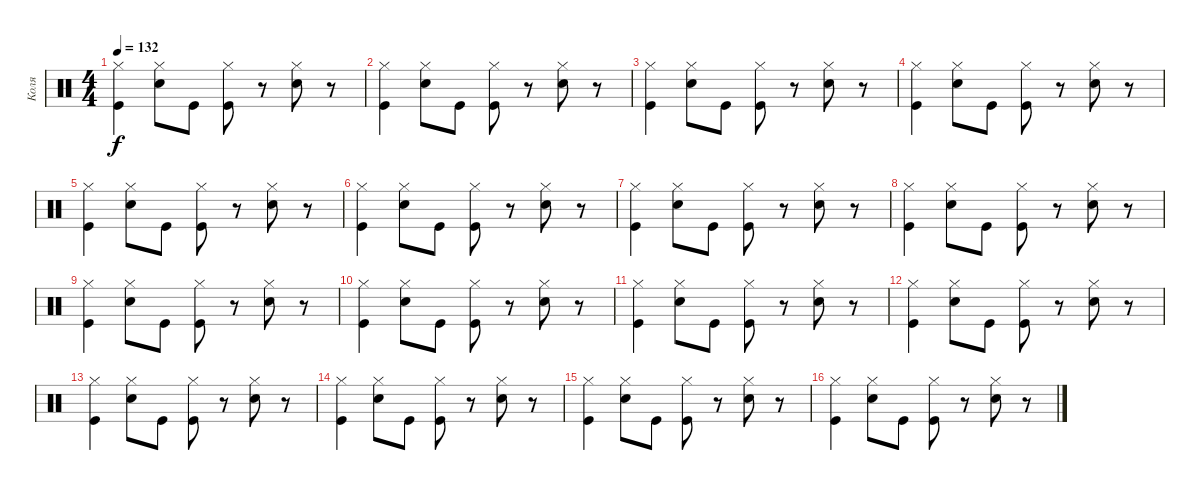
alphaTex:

\track ("Коля" "Коля") {instrument percussion}
\staff {score}
\articulation defaults
\ts (4 4)
\tempo 132
\clef neutral
\ks c
("Hi-Hat (closed)" "Kick (hit)").4{dy f} ("Hi-Hat (closed)" "Snare (hit) 2").8 "Kick (hit)".8 ("Hi-Hat (closed)" "Kick (hit)").8 r.8 ("Hi-Hat (closed)" "Snare (hit) 2").8 r.8 |
("Hi-Hat (closed)" "Kick (hit)").4 ("Hi-Hat (closed)" "Snare (hit) 2").8 "Kick (hit)".8 ("Hi-Hat (closed)" "Kick (hit)").8 r.8 ("Hi-Hat (closed)" "Snare (hit) 2").8 r.8 |
("Hi-Hat (closed)" "Kick (hit)").4 ("Hi-Hat (closed)" "Snare (hit) 2").8 "Kick (hit)".8 ("Hi-Hat (closed)" "Kick (hit)").8 r.8 ("Hi-Hat (closed)" "Snare (hit) 2").8 r.8 |
("Hi-Hat (closed)" "Kick (hit)").4 ("Hi-Hat (closed)" "Snare (hit) 2").8 "Kick (hit)".8 ("Hi-Hat (closed)" "Kick (hit)").8 r.8 ("Hi-Hat (closed)" "Snare (hit) 2").8 r.8 |
("Hi-Hat (closed)" "Kick (hit)").4 ("Hi-Hat (closed)" "Snare (hit) 2").8 "Kick (hit)".8 ("Hi-Hat (closed)" "Kick (hit)").8 r.8 ("Hi-Hat (closed)" "Snare (hit) 2").8 r.8 |
("Hi-Hat (closed)" "Kick (hit)").4 ("Hi-Hat (closed)" "Snare (hit) 2").8 "Kick (hit)".8 ("Hi-Hat (closed)" "Kick (hit)").8 r.8 ("Hi-Hat (closed)" "Snare (hit) 2").8 r.8 |
("Hi-Hat (closed)" "Kick (hit)").4 ("Hi-Hat (closed)" "Snare (hit) 2").8 "Kick (hit)".8 ("Hi-Hat (closed)" "Kick (hit)").8 r.8 ("Hi-Hat (closed)" "Snare (hit) 2").8 r.8 |
("Hi-Hat (closed)" "Kick (hit)").4 ("Hi-Hat (closed)" "Snare (hit) 2").8 "Kick (hit)".8 ("Hi-Hat (closed)" "Kick (hit)").8 r.8 ("Hi-Hat (closed)" "Snare (hit) 2").8 r.8 |
("Hi-Hat (closed)" "Kick (hit)").4 ("Hi-Hat (closed)" "Snare (hit) 2").8 "Kick (hit)".8 ("Hi-Hat (closed)" "Kick (hit)").8 r.8 ("Hi-Hat (closed)" "Snare (hit) 2").8 r.8 |
("Hi-Hat (closed)" "Kick (hit)").4 ("Hi-Hat (closed)" "Snare (hit) 2").8 "Kick (hit)".8 ("Hi-Hat (closed)" "Kick (hit)").8 r.8 ("Hi-Hat (closed)" "Snare (hit) 2").8 r.8 |
("Hi-Hat (closed)" "Kick (hit)").4 ("Hi-Hat (closed)" "Snare (hit) 2").8 "Kick (hit)".8 ("Hi-Hat (closed)" "Kick (hit)").8 r.8 ("Hi-Hat (closed)" "Snare (hit) 2").8 r.8 |
("Hi-Hat (closed)" "Kick (hit)").4 ("Hi-Hat (closed)" "Snare (hit) 2").8 "Kick (hit)".8 ("Hi-Hat (closed)" "Kick (hit)").8 r.8 ("Hi-Hat (closed)" "Snare (hit) 2").8 r.8 |
("Hi-Hat (closed)" "Kick (hit)").4 ("Hi-Hat (closed)" "Snare (hit) 2").8 "Kick (hit)".8 ("Hi-Hat (closed)" "Kick (hit)").8 r.8 ("Hi-Hat (closed)" "Snare (hit) 2").8 r.8 |
("Hi-Hat (closed)" "Kick (hit)").4 ("Hi-Hat (closed)" "Snare (hit) 2").8 "Kick (hit)".8 ("Hi-Hat (closed)" "Kick (hit)").8 r.8 ("Hi-Hat (closed)" "Snare (hit) 2").8 r.8 |
("Hi-Hat (closed)" "Kick (hit)").4 ("Hi-Hat (closed)" "Snare (hit) 2").8 "Kick (hit)".8 ("Hi-Hat (closed)" "Kick (hit)").8 r.8 ("Hi-Hat (closed)" "Snare (hit) 2").8 r.8 |
("Hi-Hat (closed)" "Kick (hit)").4 ("Hi-Hat (closed)" "Snare (hit) 2").8 "Kick (hit)".8 ("Hi-Hat (closed)" "Kick (hit)").8 r.8 ("Hi-Hat (closed)" "Snare (hit) 2").8 r.8
